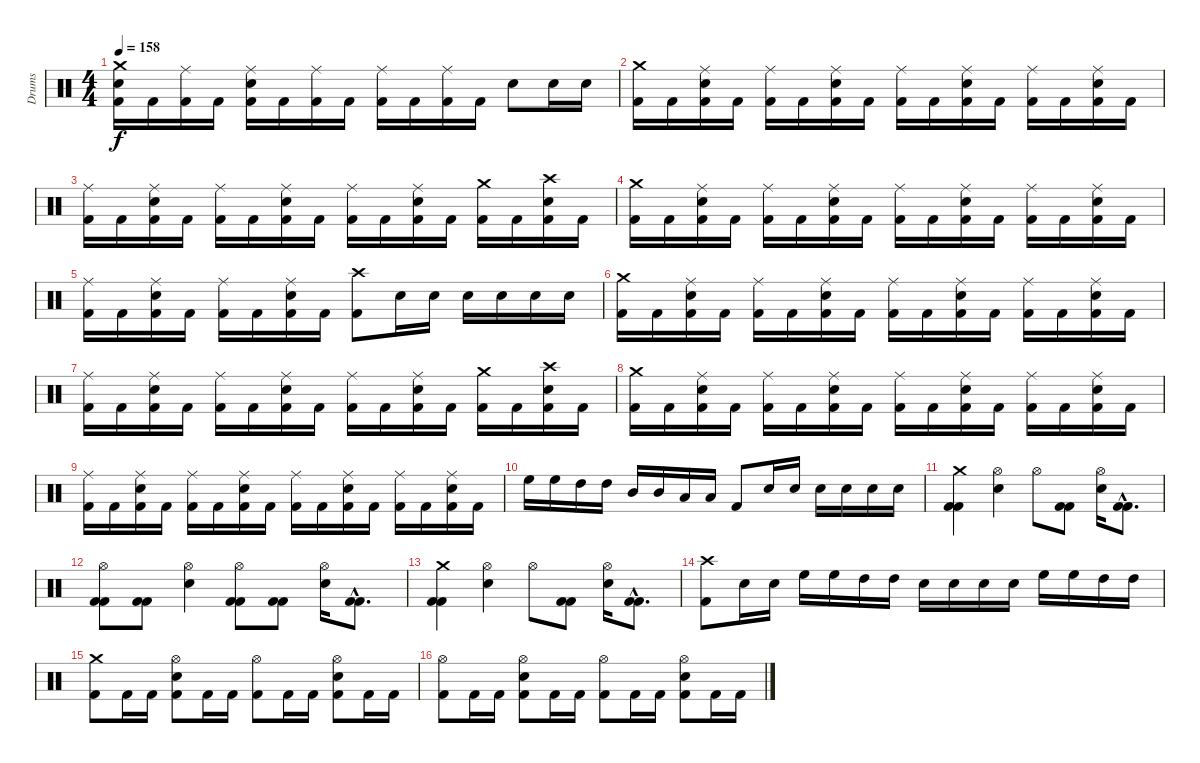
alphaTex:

\track ("Drums" "Drums") {instrument percussion}
\staff {score}
\articulation defaults
\ts (4 4)
\tempo 158
\clef neutral
\ks c
("Crash medium (hit)" "Electric Snare (hit)" "Kick (hit) 2").16{dy f} "Kick (hit) 2".16 ("Ride (middle)" "Kick (hit) 2").16 "Kick (hit) 2".16 ("Ride (middle)" "Electric Snare (hit)" "Kick (hit) 2").16 "Kick (hit) 2".16 ("Ride (middle)" "Kick (hit) 2").16 "Kick (hit) 2".16 ("Ride (middle)" "Kick (hit) 2").16 "Kick (hit) 2".16 ("Ride (middle)" "Kick (hit) 2").16 "Kick (hit) 2".16 "Electric Snare (hit)".8 "Electric Snare (hit)".16 "Electric Snare (hit)".16 |
("Crash medium (hit)" "Kick (hit) 2").16 "Kick (hit) 2".16 ("Ride (middle)" "Electric Snare (hit)" "Kick (hit) 2").16 "Kick (hit) 2".16 ("Ride (middle)" "Kick (hit) 2").16 "Kick (hit) 2".16 ("Ride (middle)" "Electric Snare (hit)" "Kick (hit) 2").16 "Kick (hit) 2".16 ("Ride (middle)" "Kick (hit) 2").16 "Kick (hit) 2".16 ("Ride (middle)" "Electric Snare (hit)" "Kick (hit) 2").16 "Kick (hit) 2".16 ("Ride (middle)" "Kick (hit) 2").16 "Kick (hit) 2".16 ("Ride (middle)" "Electric Snare (hit)" "Kick (hit) 2").16 "Kick (hit) 2".16 |
("Ride (middle)" "Kick (hit) 2").16 "Kick (hit) 2".16 ("Ride (middle)" "Electric Snare (hit)" "Kick (hit) 2").16 "Kick (hit) 2".16 ("Ride (middle)" "Kick (hit) 2").16 "Kick (hit) 2".16 ("Ride (middle)" "Electric Snare (hit)" "Kick (hit) 2").16 "Kick (hit) 2".16 ("Ride (middle)" "Kick (hit) 2").16 "Kick (hit) 2".16 ("Ride (middle)" "Electric Snare (hit)" "Kick (hit) 2").16 "Kick (hit) 2".16 ("Crash medium (hit)" "Kick (hit) 2").16 "Kick (hit) 2".16 ("Crash high (hit)" "Electric Snare (hit)" "Kick (hit) 2").16 "Kick (hit) 2".16 |
("Crash medium (hit)" "Kick (hit) 2").16 "Kick (hit) 2".16 ("Ride (middle)" "Electric Snare (hit)" "Kick (hit) 2").16 "Kick (hit) 2".16 ("Ride (middle)" "Kick (hit) 2").16 "Kick (hit) 2".16 ("Ride (middle)" "Electric Snare (hit)" "Kick (hit) 2").16 "Kick (hit) 2".16 ("Ride (middle)" "Kick (hit) 2").16 "Kick (hit) 2".16 ("Ride (middle)" "Electric Snare (hit)" "Kick (hit) 2").16 "Kick (hit) 2".16 ("Ride (middle)" "Kick (hit) 2").16 "Kick (hit) 2".16 ("Ride (middle)" "Electric Snare (hit)" "Kick (hit) 2").16 "Kick (hit) 2".16 |
("Ride (middle)" "Kick (hit) 2").16 "Kick (hit) 2".16 ("Ride (middle)" "Electric Snare (hit)" "Kick (hit) 2").16 "Kick (hit) 2".16 ("Ride (middle)" "Kick (hit) 2").16 "Kick (hit) 2".16 ("Ride (middle)" "Electric Snare (hit)" "Kick (hit) 2").16 "Kick (hit) 2".16 ("Crash high (hit)" "Kick (hit) 2").8 "Electric Snare (hit)".16 "Electric Snare (hit)".16 "Electric Snare (hit)".16 "Electric Snare (hit)".16 "Electric Snare (hit)".16 "Electric Snare (hit)".16 |
("Crash medium (hit)" "Kick (hit) 2").16 "Kick (hit) 2".16 ("Ride (middle)" "Electric Snare (hit)" "Kick (hit) 2").16 "Kick (hit) 2".16 ("Ride (middle)" "Kick (hit) 2").16 "Kick (hit) 2".16 ("Ride (middle)" "Electric Snare (hit)" "Kick (hit) 2").16 "Kick (hit) 2".16 ("Ride (middle)" "Kick (hit) 2").16 "Kick (hit) 2".16 ("Ride (middle)" "Electric Snare (hit)" "Kick (hit) 2").16 "Kick (hit) 2".16 ("Ride (middle)" "Kick (hit) 2").16 "Kick (hit) 2".16 ("Ride (middle)" "Electric Snare (hit)" "Kick (hit) 2").16 "Kick (hit) 2".16 |
("Ride (middle)" "Kick (hit) 2").16 "Kick (hit) 2".16 ("Ride (middle)" "Electric Snare (hit)" "Kick (hit) 2").16 "Kick (hit) 2".16 ("Ride (middle)" "Kick (hit) 2").16 "Kick (hit) 2".16 ("Ride (middle)" "Electric Snare (hit)" "Kick (hit) 2").16 "Kick (hit) 2".16 ("Ride (middle)" "Kick (hit) 2").16 "Kick (hit) 2".16 ("Ride (middle)" "Electric Snare (hit)" "Kick (hit) 2").16 "Kick (hit) 2".16 ("Crash medium (hit)" "Kick (hit) 2").16 "Kick (hit) 2".16 ("Crash high (hit)" "Electric Snare (hit)" "Kick (hit) 2").16 "Kick (hit) 2".16 |
("Crash medium (hit)" "Kick (hit) 2").16 "Kick (hit) 2".16 ("Ride (middle)" "Electric Snare (hit)" "Kick (hit) 2").16 "Kick (hit) 2".16 ("Ride (middle)" "Kick (hit) 2").16 "Kick (hit) 2".16 ("Ride (middle)" "Electric Snare (hit)" "Kick (hit) 2").16 "Kick (hit) 2".16 ("Ride (middle)" "Kick (hit) 2").16 "Kick (hit) 2".16 ("Ride (middle)" "Electric Snare (hit)" "Kick (hit) 2").16 "Kick (hit) 2".16 ("Ride (middle)" "Kick (hit) 2").16 "Kick (hit) 2".16 ("Ride (middle)" "Electric Snare (hit)" "Kick (hit) 2").16 "Kick (hit) 2".16 |
("Ride (middle)" "Kick (hit) 2").16 "Kick (hit) 2".16 ("Ride (middle)" "Electric Snare (hit)" "Kick (hit) 2").16 "Kick (hit) 2".16 ("Ride (middle)" "Kick (hit) 2").16 "Kick (hit) 2".16 ("Ride (middle)" "Electric Snare (hit)" "Kick (hit) 2").16 "Kick (hit) 2".16 ("Ride (middle)" "Kick (hit) 2").16 "Kick (hit) 2".16 ("Ride (middle)" "Electric Snare (hit)" "Kick (hit) 2").16 "Kick (hit) 2".16 ("Ride (middle)" "Kick (hit) 2").16 "Kick (hit) 2".16 ("Ride (middle)" "Electric Snare (hit)" "Kick (hit) 2").16 "Kick (hit) 2".16 |
"High Floor Tom (hit)".16 "High Floor Tom (hit)".16 "High Tom (hit)".16 "High Tom (hit)".16 "Mid Tom (hit)".16 "Mid Tom (hit)".16 "Low Tom (hit)".16 "Low Tom (hit)".16 "Kick (hit) 2".8 "Electric Snare (hit)".16 "Electric Snare (hit)".16 "Electric Snare (hit)".16 "Electric Snare (hit)".16 "Electric Snare (hit)".16 "Electric Snare (hit)".16 |
("Crash medium (hit)" "Kick (hit) 2" "Kick (hit) 2").4 ("Hi-Hat (open)" "Electric Snare (hit)").4 "Hi-Hat (open)".8 ("Kick (hit) 2" "Kick (hit) 2").8 ("Hi-Hat (open)" "Electric Snare (hit)").16 ("Kick (hit) 2"{hac} "Kick (hit) 2"{hac}).8{d} |
("Hi-Hat (open)" "Kick (hit) 2" "Kick (hit) 2").8 ("Kick (hit) 2" "Kick (hit) 2").8 ("Hi-Hat (open)" "Electric Snare (hit)").4 ("Hi-Hat (open)" "Kick (hit) 2" "Kick (hit) 2").8 ("Kick (hit) 2" "Kick (hit) 2").8 ("Hi-Hat (open)" "Electric Snare (hit)").16 ("Kick (hit) 2"{hac} "Kick (hit) 2"{hac}).8{d} |
("Crash medium (hit)" "Kick (hit) 2" "Kick (hit) 2").4 ("Hi-Hat (open)" "Electric Snare (hit)").4 "Hi-Hat (open)".8 ("Kick (hit) 2" "Kick (hit) 2").8 ("Hi-Hat (open)" "Electric Snare (hit)").16 ("Kick (hit) 2"{hac} "Kick (hit) 2"{hac}).8{d} |
("Crash high (hit)" "Kick (hit) 2").8 "Electric Snare (hit)".16 "Electric Snare (hit)".16 "High Floor Tom (hit)".16 "High Floor Tom (hit)".16 "High Tom (hit)".16 "High Tom (hit)".16 "Electric Snare (hit)".16 "Electric Snare (hit)".16 "Electric Snare (hit)".16 "Electric Snare (hit)".16 "High Floor Tom (hit)".16 "High Floor Tom (hit)".16 "High Tom (hit)".16 "High Tom (hit)".16 |
("Crash medium (hit)" "Kick (hit) 2").8 "Kick (hit) 2".16 "Kick (hit) 2".16 ("Hi-Hat (open)" "Electric Snare (hit)" "Kick (hit) 2").8 "Kick (hit) 2".16 "Kick (hit) 2".16 ("Hi-Hat (open)" "Kick (hit) 2").8 "Kick (hit) 2".16 "Kick (hit) 2".16 ("Hi-Hat (open)" "Electric Snare (hit)" "Kick (hit) 2").8 "Kick (hit) 2".16 "Kick (hit) 2".16 |
("Hi-Hat (open)" "Kick (hit) 2").8 "Kick (hit) 2".16 "Kick (hit) 2".16 ("Hi-Hat (open)" "Electric Snare (hit)" "Kick (hit) 2").8 "Kick (hit) 2".16 "Kick (hit) 2".16 ("Hi-Hat (open)" "Kick (hit) 2").8 "Kick (hit) 2".16 "Kick (hit) 2".16 ("Hi-Hat (open)" "Electric Snare (hit)" "Kick (hit) 2").8 "Kick (hit) 2".16 "Kick (hit) 2".16
